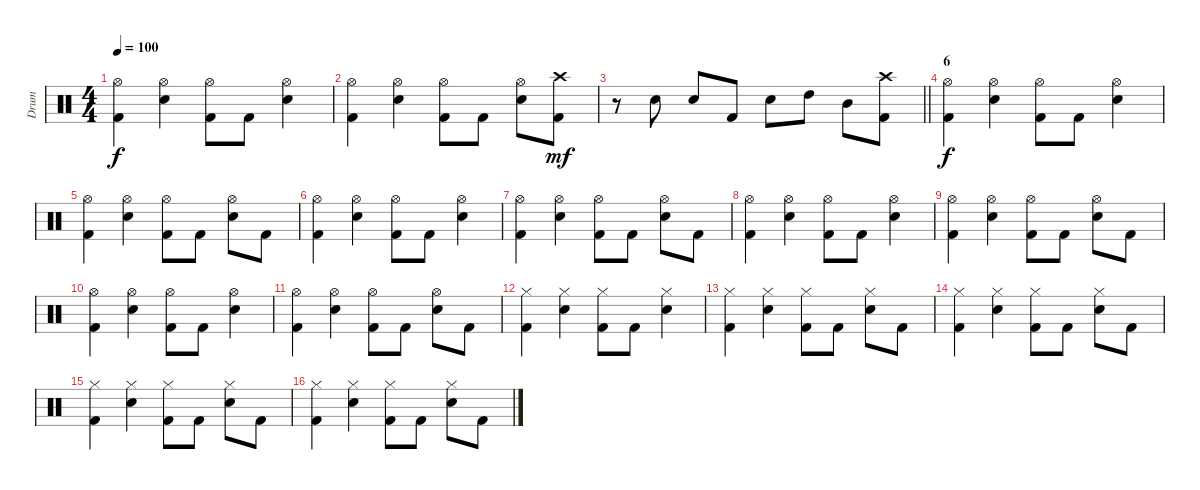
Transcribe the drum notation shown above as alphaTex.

\track ("Drum" "Drum") {instrument percussion}
\staff {score}
\articulation defaults
\ts (4 4)
\tempo 100
\clef neutral
\ks c
("Kick (hit) 2" "Hi-Hat (open)").4{dy f} ("Snare (hit) 2" "Hi-Hat (open)").4 ("Kick (hit) 2" "Hi-Hat (open)").8 "Kick (hit) 2".8 ("Snare (hit) 2" "Hi-Hat (open)").4 |
("Kick (hit) 2" "Hi-Hat (open)").4 ("Snare (hit) 2" "Hi-Hat (open)").4 ("Kick (hit) 2" "Hi-Hat (open)").8 "Kick (hit) 2".8 ("Snare (hit) 2" "Hi-Hat (open)").8 ("Kick (hit) 2" "Crash high (hit)").8{dy mf} |
\barLineRight lightlight
r.8 "Snare (hit) 2".8 "Snare (hit) 2".8 "Kick (hit) 2".8 "Snare (hit) 2".8 "High Tom (hit)".8 "Mid Tom (hit)".8 ("Kick (hit) 2" "Crash high (hit)").8 |
\section ("" "6")
("Kick (hit) 2" "Hi-Hat (open)").4{dy f} ("Snare (hit) 2" "Hi-Hat (open)").4 ("Kick (hit) 2" "Hi-Hat (open)").8 "Kick (hit) 2".8 ("Snare (hit) 2" "Hi-Hat (open)").4 |
("Kick (hit) 2" "Hi-Hat (open)").4 ("Snare (hit) 2" "Hi-Hat (open)").4 ("Kick (hit) 2" "Hi-Hat (open)").8 "Kick (hit) 2".8 ("Snare (hit) 2" "Hi-Hat (open)").8 "Kick (hit) 2".8 |
("Kick (hit) 2" "Hi-Hat (open)").4 ("Snare (hit) 2" "Hi-Hat (open)").4 ("Kick (hit) 2" "Hi-Hat (open)").8 "Kick (hit) 2".8 ("Snare (hit) 2" "Hi-Hat (open)").4 |
("Kick (hit) 2" "Hi-Hat (open)").4 ("Snare (hit) 2" "Hi-Hat (open)").4 ("Kick (hit) 2" "Hi-Hat (open)").8 "Kick (hit) 2".8 ("Snare (hit) 2" "Hi-Hat (open)").8 "Kick (hit) 2".8 |
("Kick (hit) 2" "Hi-Hat (open)").4 ("Snare (hit) 2" "Hi-Hat (open)").4 ("Kick (hit) 2" "Hi-Hat (open)").8 "Kick (hit) 2".8 ("Snare (hit) 2" "Hi-Hat (open)").4 |
("Kick (hit) 2" "Hi-Hat (open)").4 ("Snare (hit) 2" "Hi-Hat (open)").4 ("Kick (hit) 2" "Hi-Hat (open)").8 "Kick (hit) 2".8 ("Snare (hit) 2" "Hi-Hat (open)").8 "Kick (hit) 2".8 |
("Kick (hit) 2" "Hi-Hat (open)").4 ("Snare (hit) 2" "Hi-Hat (open)").4 ("Kick (hit) 2" "Hi-Hat (open)").8 "Kick (hit) 2".8 ("Snare (hit) 2" "Hi-Hat (open)").4 |
("Kick (hit) 2" "Hi-Hat (open)").4 ("Snare (hit) 2" "Hi-Hat (open)").4 ("Kick (hit) 2" "Hi-Hat (open)").8 "Kick (hit) 2".8 ("Snare (hit) 2" "Hi-Hat (open)").8 "Kick (hit) 2".8 |
("Hi-Hat (closed)" "Kick (hit) 2").4 ("Hi-Hat (closed)" "Snare (hit) 2").4 ("Hi-Hat (closed)" "Kick (hit) 2").8 "Kick (hit) 2".8 ("Snare (hit) 2" "Hi-Hat (closed)").4 |
("Hi-Hat (closed)" "Kick (hit) 2").4 ("Hi-Hat (closed)" "Snare (hit) 2").4 ("Hi-Hat (closed)" "Kick (hit) 2").8 "Kick (hit) 2".8 ("Snare (hit) 2" "Hi-Hat (closed)").8 "Kick (hit) 2".8 |
("Hi-Hat (closed)" "Kick (hit) 2").4 ("Hi-Hat (closed)" "Snare (hit) 2").4 ("Hi-Hat (closed)" "Kick (hit) 2").8 "Kick (hit) 2".8 ("Snare (hit) 2" "Hi-Hat (closed)").8 "Kick (hit) 2".8 |
("Hi-Hat (closed)" "Kick (hit) 2").4 ("Hi-Hat (closed)" "Snare (hit) 2").4 ("Hi-Hat (closed)" "Kick (hit) 2").8 "Kick (hit) 2".8 ("Snare (hit) 2" "Hi-Hat (closed)").8 "Kick (hit) 2".8 |
("Hi-Hat (closed)" "Kick (hit) 2").4 ("Hi-Hat (closed)" "Snare (hit) 2").4 ("Hi-Hat (closed)" "Kick (hit) 2").8 "Kick (hit) 2".8 ("Snare (hit) 2" "Hi-Hat (closed)").8 "Kick (hit) 2".8
